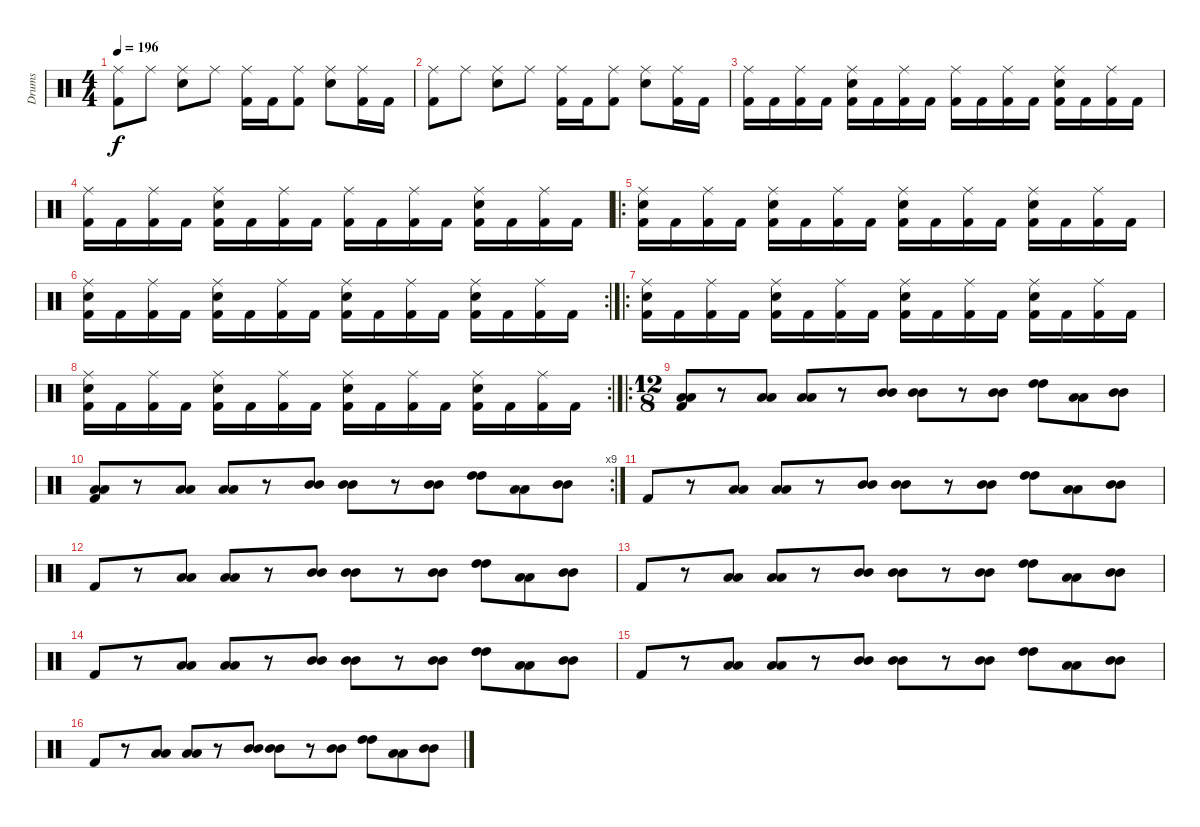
\track ("Drums" "Drums") {instrument percussion}
\staff {score}
\articulation defaults
\ts (4 4)
\tempo 196
\clef neutral
\ks c
("Kick (hit) 2" "Ride (middle)").8{dy f} "Ride (middle)".8 ("Snare (hit) 2" "Ride (middle)").8 "Ride (middle)".8 ("Kick (hit) 2" "Ride (middle)").16 "Kick (hit) 2".16 ("Kick (hit) 2" "Ride (middle)").8 ("Snare (hit) 2" "Ride (middle)").8 ("Kick (hit) 2" "Ride (middle)").16 "Kick (hit) 2".16 |
("Kick (hit) 2" "Ride (middle)").8 "Ride (middle)".8 ("Snare (hit) 2" "Ride (middle)").8 "Ride (middle)".8 ("Kick (hit) 2" "Ride (middle)").16 "Kick (hit) 2".16 ("Kick (hit) 2" "Ride (middle)").8 ("Snare (hit) 2" "Ride (middle)").8 ("Kick (hit) 2" "Ride (middle)").16 "Kick (hit) 2".16 |
("Kick (hit) 2" "Ride (middle)").16 "Kick (hit) 2".16 ("Kick (hit) 2" "Ride (middle)").16 "Kick (hit) 2".16 ("Kick (hit) 2" "Snare (hit) 2" "Ride (middle)").16 "Kick (hit) 2".16 ("Kick (hit) 2" "Ride (middle)").16 "Kick (hit) 2".16 ("Kick (hit) 2" "Ride (middle)").16 "Kick (hit) 2".16 ("Kick (hit) 2" "Ride (middle)").16 "Kick (hit) 2".16 ("Kick (hit) 2" "Snare (hit) 2" "Ride (middle)").16 "Kick (hit) 2".16 ("Kick (hit) 2" "Ride (middle)").16 "Kick (hit) 2".16 |
("Kick (hit) 2" "Ride (middle)").16 "Kick (hit) 2".16 ("Kick (hit) 2" "Ride (middle)").16 "Kick (hit) 2".16 ("Kick (hit) 2" "Snare (hit) 2" "Ride (middle)").16 "Kick (hit) 2".16 ("Kick (hit) 2" "Ride (middle)").16 "Kick (hit) 2".16 ("Kick (hit) 2" "Ride (middle)").16 "Kick (hit) 2".16 ("Kick (hit) 2" "Ride (middle)").16 "Kick (hit) 2".16 ("Kick (hit) 2" "Snare (hit) 2" "Ride (middle)").16 "Kick (hit) 2".16 ("Kick (hit) 2" "Ride (middle)").16 "Kick (hit) 2".16 |
\ro
("Kick (hit) 2" "Snare (hit) 2" "Ride (middle)").16 "Kick (hit) 2".16 ("Kick (hit) 2" "Ride (middle)").16 "Kick (hit) 2".16 ("Kick (hit) 2" "Snare (hit) 2" "Ride (middle)").16 "Kick (hit) 2".16 ("Kick (hit) 2" "Ride (middle)").16 "Kick (hit) 2".16 ("Kick (hit) 2" "Snare (hit) 2" "Ride (middle)").16 "Kick (hit) 2".16 ("Kick (hit) 2" "Ride (middle)").16 "Kick (hit) 2".16 ("Kick (hit) 2" "Snare (hit) 2" "Ride (middle)").16 "Kick (hit) 2".16 ("Kick (hit) 2" "Ride (middle)").16 "Kick (hit) 2".16 |
\rc 2
("Kick (hit) 2" "Snare (hit) 2" "Ride (middle)").16 "Kick (hit) 2".16 ("Kick (hit) 2" "Ride (middle)").16 "Kick (hit) 2".16 ("Kick (hit) 2" "Snare (hit) 2" "Ride (middle)").16 "Kick (hit) 2".16 ("Kick (hit) 2" "Ride (middle)").16 "Kick (hit) 2".16 ("Kick (hit) 2" "Snare (hit) 2" "Ride (middle)").16 "Kick (hit) 2".16 ("Kick (hit) 2" "Ride (middle)").16 "Kick (hit) 2".16 ("Kick (hit) 2" "Snare (hit) 2" "Ride (middle)").16 "Kick (hit) 2".16 ("Kick (hit) 2" "Ride (middle)").16 "Kick (hit) 2".16 |
\ro
("Kick (hit) 2" "Snare (hit) 2" "Ride (middle)").16 "Kick (hit) 2".16 ("Kick (hit) 2" "Ride (middle)").16 "Kick (hit) 2".16 ("Kick (hit) 2" "Snare (hit) 2" "Ride (middle)").16 "Kick (hit) 2".16 ("Kick (hit) 2" "Ride (middle)").16 "Kick (hit) 2".16 ("Kick (hit) 2" "Snare (hit) 2" "Ride (middle)").16 "Kick (hit) 2".16 ("Kick (hit) 2" "Ride (middle)").16 "Kick (hit) 2".16 ("Kick (hit) 2" "Snare (hit) 2" "Ride (middle)").16 "Kick (hit) 2".16 ("Kick (hit) 2" "Ride (middle)").16 "Kick (hit) 2".16 |
\rc 2
("Kick (hit) 2" "Snare (hit) 2" "Ride (middle)").16 "Kick (hit) 2".16 ("Kick (hit) 2" "Ride (middle)").16 "Kick (hit) 2".16 ("Kick (hit) 2" "Snare (hit) 2" "Ride (middle)").16 "Kick (hit) 2".16 ("Kick (hit) 2" "Ride (middle)").16 "Kick (hit) 2".16 ("Kick (hit) 2" "Snare (hit) 2" "Ride (middle)").16 "Kick (hit) 2".16 ("Kick (hit) 2" "Ride (middle)").16 "Kick (hit) 2".16 ("Kick (hit) 2" "Snare (hit) 2" "Ride (middle)").16 "Kick (hit) 2".16 ("Kick (hit) 2" "Ride (middle)").16 "Kick (hit) 2".16 |
\ro
\ts (12 8)
("Kick (hit) 2" "Low Floor Tom (hit)" "Low Floor Tom (hit)").8 r.8 ("Low Tom (hit)" "Low Tom (hit)").8 ("Low Tom (hit)" "Low Tom (hit)").8 r.8 ("Mid Tom (hit)" "Mid Tom (hit)").8 ("Mid Tom (hit)" "Mid Tom (hit)").8 r.8 ("Mid Tom (hit)" "Mid Tom (hit)").8 ("High Tom (hit)" "High Tom (hit)").8 ("Low Tom (hit)" "Low Tom (hit)").8 ("Mid Tom (hit)" "Mid Tom (hit)").8 |
\rc 9
("Kick (hit) 2" "Low Floor Tom (hit)" "Low Floor Tom (hit)").8 r.8 ("Low Tom (hit)" "Low Tom (hit)").8 ("Low Tom (hit)" "Low Tom (hit)").8 r.8 ("Mid Tom (hit)" "Mid Tom (hit)").8 ("Mid Tom (hit)" "Mid Tom (hit)").8 r.8 ("Mid Tom (hit)" "Mid Tom (hit)").8 ("High Tom (hit)" "High Tom (hit)").8 ("Low Tom (hit)" "Low Tom (hit)").8 ("Mid Tom (hit)" "Mid Tom (hit)").8 |
"Kick (hit) 2".8 r.8 ("Low Tom (hit)" "Low Tom (hit)").8 ("Low Tom (hit)" "Low Tom (hit)").8 r.8 ("Mid Tom (hit)" "Mid Tom (hit)").8 ("Mid Tom (hit)" "Mid Tom (hit)").8 r.8 ("Mid Tom (hit)" "Mid Tom (hit)").8 ("High Tom (hit)" "High Tom (hit)").8 ("Low Tom (hit)" "Low Tom (hit)").8 ("Mid Tom (hit)" "Mid Tom (hit)").8 |
"Kick (hit) 2".8 r.8 ("Low Tom (hit)" "Low Tom (hit)").8 ("Low Tom (hit)" "Low Tom (hit)").8 r.8 ("Mid Tom (hit)" "Mid Tom (hit)").8 ("Mid Tom (hit)" "Mid Tom (hit)").8 r.8 ("Mid Tom (hit)" "Mid Tom (hit)").8 ("High Tom (hit)" "High Tom (hit)").8 ("Low Tom (hit)" "Low Tom (hit)").8 ("Mid Tom (hit)" "Mid Tom (hit)").8 |
"Kick (hit) 2".8 r.8 ("Low Tom (hit)" "Low Tom (hit)").8 ("Low Tom (hit)" "Low Tom (hit)").8 r.8 ("Mid Tom (hit)" "Mid Tom (hit)").8 ("Mid Tom (hit)" "Mid Tom (hit)").8 r.8 ("Mid Tom (hit)" "Mid Tom (hit)").8 ("High Tom (hit)" "High Tom (hit)").8 ("Low Tom (hit)" "Low Tom (hit)").8 ("Mid Tom (hit)" "Mid Tom (hit)").8 |
"Kick (hit) 2".8 r.8 ("Low Tom (hit)" "Low Tom (hit)").8 ("Low Tom (hit)" "Low Tom (hit)").8 r.8 ("Mid Tom (hit)" "Mid Tom (hit)").8 ("Mid Tom (hit)" "Mid Tom (hit)").8 r.8 ("Mid Tom (hit)" "Mid Tom (hit)").8 ("High Tom (hit)" "High Tom (hit)").8 ("Low Tom (hit)" "Low Tom (hit)").8 ("Mid Tom (hit)" "Mid Tom (hit)").8 |
"Kick (hit) 2".8 r.8 ("Low Tom (hit)" "Low Tom (hit)").8 ("Low Tom (hit)" "Low Tom (hit)").8 r.8 ("Mid Tom (hit)" "Mid Tom (hit)").8 ("Mid Tom (hit)" "Mid Tom (hit)").8 r.8 ("Mid Tom (hit)" "Mid Tom (hit)").8 ("High Tom (hit)" "High Tom (hit)").8 ("Low Tom (hit)" "Low Tom (hit)").8 ("Mid Tom (hit)" "Mid Tom (hit)").8 |
"Kick (hit) 2".8 r.8 ("Low Tom (hit)" "Low Tom (hit)").8 ("Low Tom (hit)" "Low Tom (hit)").8 r.8 ("Mid Tom (hit)" "Mid Tom (hit)").8 ("Mid Tom (hit)" "Mid Tom (hit)").8 r.8 ("Mid Tom (hit)" "Mid Tom (hit)").8 ("High Tom (hit)" "High Tom (hit)").8 ("Low Tom (hit)" "Low Tom (hit)").8 ("Mid Tom (hit)" "Mid Tom (hit)").8
